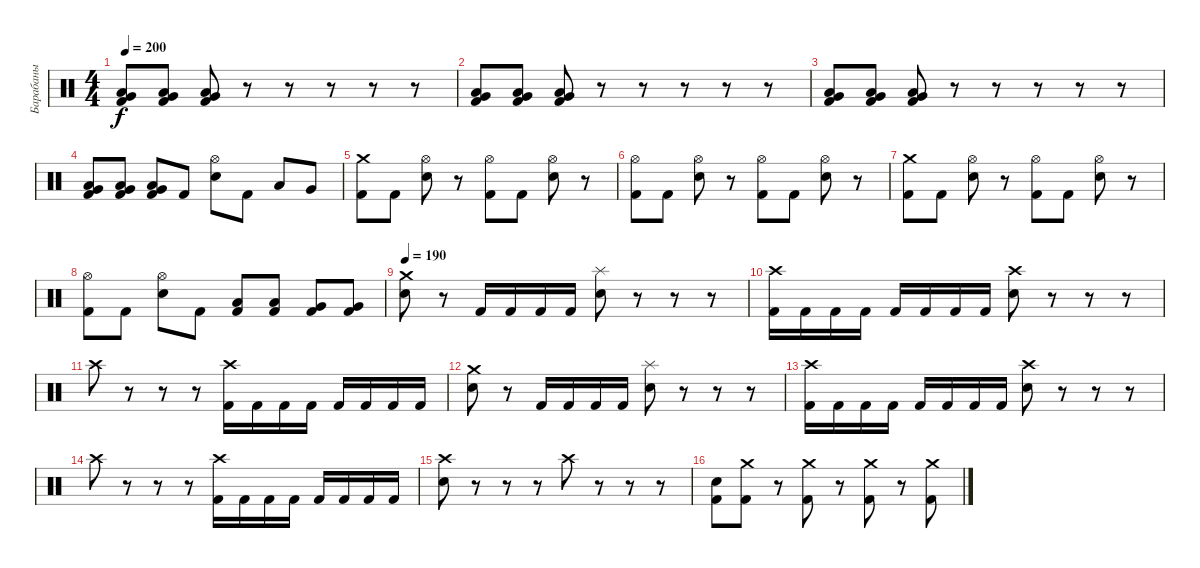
\track ("Барабаны" "Барабаны") {instrument percussion}
\staff {score}
\articulation defaults
\ts (4 4)
\tempo 200
\clef neutral
\ks c
("Very Low Tom (hit)" "Low Tom (hit)" "Kick (hit) 2").8{dy f} ("Very Low Tom (hit)" "Low Tom (hit)" "Kick (hit) 2").8 ("Very Low Tom (hit)" "Low Tom (hit)" "Kick (hit) 2").8 r.8 r.8 r.8 r.8 r.8 |
("Very Low Tom (hit)" "Low Tom (hit)" "Kick (hit) 2").8 ("Very Low Tom (hit)" "Low Tom (hit)" "Kick (hit) 2").8 ("Very Low Tom (hit)" "Low Tom (hit)" "Kick (hit) 2").8 r.8 r.8 r.8 r.8 r.8 |
("Very Low Tom (hit)" "Low Tom (hit)" "Kick (hit) 2").8 ("Very Low Tom (hit)" "Low Tom (hit)" "Kick (hit) 2").8 ("Very Low Tom (hit)" "Low Tom (hit)" "Kick (hit) 2").8 r.8 r.8 r.8 r.8 r.8 |
("Very Low Tom (hit)" "Low Tom (hit)" "Kick (hit) 2").8 ("Very Low Tom (hit)" "Low Tom (hit)" "Kick (hit) 2").8 ("Very Low Tom (hit)" "Low Tom (hit)" "Kick (hit) 2").8 "Kick (hit) 2".8 ("Hi-Hat (open)" "Electric Snare (hit)").8 "Kick (hit) 2".8 "Low Tom (hit)".8 "Very Low Tom (hit)".8 |
("Crash medium (hit)" "Kick (hit) 2").8 "Kick (hit) 2".8 ("Hi-Hat (open)" "Electric Snare (hit)").8 r.8 ("Hi-Hat (open)" "Kick (hit) 2").8 "Kick (hit) 2".8 ("Hi-Hat (open)" "Electric Snare (hit)").8 r.8 |
("Hi-Hat (open)" "Kick (hit) 2").8 "Kick (hit) 2".8 ("Hi-Hat (open)" "Electric Snare (hit)").8 r.8 ("Hi-Hat (open)" "Kick (hit) 2").8 "Kick (hit) 2".8 ("Hi-Hat (open)" "Electric Snare (hit)").8 r.8 |
("Crash medium (hit)" "Kick (hit) 2").8 "Kick (hit) 2".8 ("Hi-Hat (open)" "Electric Snare (hit)").8 r.8 ("Hi-Hat (open)" "Kick (hit) 2").8 "Kick (hit) 2".8 ("Hi-Hat (open)" "Electric Snare (hit)").8 r.8 |
("Hi-Hat (open)" "Kick (hit) 2").8 "Kick (hit) 2".8 ("Hi-Hat (open)" "Electric Snare (hit)").8 "Kick (hit) 2".8 ("Low Tom (hit)" "Kick (hit) 2").8 ("Low Tom (hit)" "Kick (hit) 2").8 ("Very Low Tom (hit)" "Kick (hit) 2").8 ("Very Low Tom (hit)" "Kick (hit) 2").8 |
\tempo 190
("Crash medium (hit)" "Snare (hit) 2").8 r.8 "Kick (hit) 2".16 "Kick (hit) 2".16 "Kick (hit) 2".16 "Kick (hit) 2".16 ("Splash (hit)" "Snare (hit) 2").8 r.8 r.8 r.8 |
("Crash high (hit)" "Kick (hit) 2").16 "Kick (hit) 2".16 "Kick (hit) 2".16 "Kick (hit) 2".16 "Kick (hit) 2".16 "Kick (hit) 2".16 "Kick (hit) 2".16 "Kick (hit) 2".16 ("Crash high (hit)" "Snare (hit) 2").8 r.8 r.8 r.8 |
"Crash high (hit)".8 r.8 r.8 r.8 ("Crash high (hit)" "Kick (hit) 2").16 "Kick (hit) 2".16 "Kick (hit) 2".16 "Kick (hit) 2".16 "Kick (hit) 2".16 "Kick (hit) 2".16 "Kick (hit) 2".16 "Kick (hit) 2".16 |
("Crash medium (hit)" "Snare (hit) 2").8 r.8 "Kick (hit) 2".16 "Kick (hit) 2".16 "Kick (hit) 2".16 "Kick (hit) 2".16 ("Splash (hit)" "Snare (hit) 2").8 r.8 r.8 r.8 |
("Crash high (hit)" "Kick (hit) 2").16 "Kick (hit) 2".16 "Kick (hit) 2".16 "Kick (hit) 2".16 "Kick (hit) 2".16 "Kick (hit) 2".16 "Kick (hit) 2".16 "Kick (hit) 2".16 ("Crash high (hit)" "Snare (hit) 2").8 r.8 r.8 r.8 |
"Crash high (hit)".8 r.8 r.8 r.8 ("Crash high (hit)" "Kick (hit) 2").16 "Kick (hit) 2".16 "Kick (hit) 2".16 "Kick (hit) 2".16 "Kick (hit) 2".16 "Kick (hit) 2".16 "Kick (hit) 2".16 "Kick (hit) 2".16 |
("Crash high (hit)" "Snare (hit) 2").8 r.8 r.8 r.8 "Crash high (hit)".8 r.8 r.8 r.8 |
("Snare (hit) 2" "Kick (hit) 2").8 ("Crash medium (hit)" "Kick (hit) 2").8 r.8 ("Crash medium (hit)" "Kick (hit) 2").8 r.8 ("Crash medium (hit)" "Kick (hit) 2").8 r.8 ("Crash medium (hit)" "Kick (hit) 2").8
